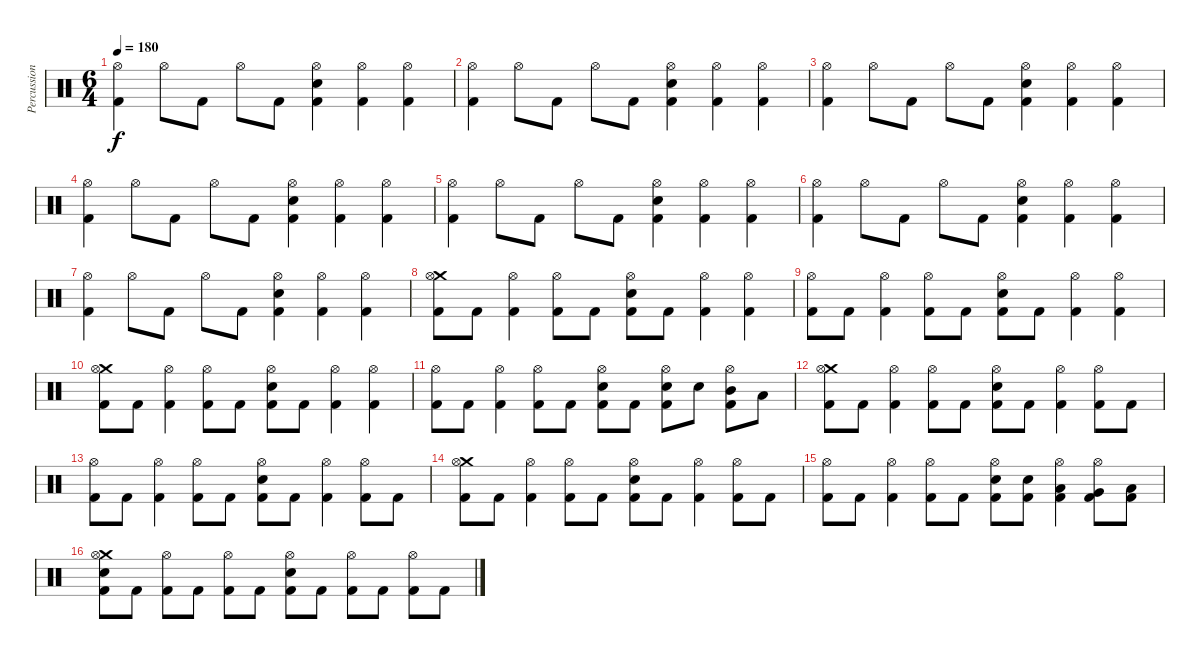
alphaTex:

\track ("Percussion" "Percussion") {instrument percussion}
\staff {score}
\articulation defaults
\ts (6 4)
\tempo 180
\clef neutral
\ks c
("Hi-Hat (open)" "Kick (hit) 2").4{dy f} "Hi-Hat (open)".8 "Kick (hit) 2".8 "Hi-Hat (open)".8 "Kick (hit) 2".8 ("Hi-Hat (open)" "Electric Snare (hit)" "Kick (hit) 2").4 ("Hi-Hat (open)" "Kick (hit) 2").4 ("Hi-Hat (open)" "Kick (hit) 2").4 |
("Hi-Hat (open)" "Kick (hit) 2").4 "Hi-Hat (open)".8 "Kick (hit) 2".8 "Hi-Hat (open)".8 "Kick (hit) 2".8 ("Hi-Hat (open)" "Electric Snare (hit)" "Kick (hit) 2").4 ("Hi-Hat (open)" "Kick (hit) 2").4 ("Hi-Hat (open)" "Kick (hit) 2").4 |
("Hi-Hat (open)" "Kick (hit) 2").4 "Hi-Hat (open)".8 "Kick (hit) 2".8 "Hi-Hat (open)".8 "Kick (hit) 2".8 ("Hi-Hat (open)" "Electric Snare (hit)" "Kick (hit) 2").4 ("Hi-Hat (open)" "Kick (hit) 2").4 ("Hi-Hat (open)" "Kick (hit) 2").4 |
("Hi-Hat (open)" "Kick (hit) 2").4 "Hi-Hat (open)".8 "Kick (hit) 2".8 "Hi-Hat (open)".8 "Kick (hit) 2".8 ("Hi-Hat (open)" "Electric Snare (hit)" "Kick (hit) 2").4 ("Hi-Hat (open)" "Kick (hit) 2").4 ("Hi-Hat (open)" "Kick (hit) 2").4 |
("Hi-Hat (open)" "Kick (hit) 2").4 "Hi-Hat (open)".8 "Kick (hit) 2".8 "Hi-Hat (open)".8 "Kick (hit) 2".8 ("Hi-Hat (open)" "Electric Snare (hit)" "Kick (hit) 2").4 ("Hi-Hat (open)" "Kick (hit) 2").4 ("Hi-Hat (open)" "Kick (hit) 2").4 |
("Hi-Hat (open)" "Kick (hit) 2").4 "Hi-Hat (open)".8 "Kick (hit) 2".8 "Hi-Hat (open)".8 "Kick (hit) 2".8 ("Hi-Hat (open)" "Electric Snare (hit)" "Kick (hit) 2").4 ("Hi-Hat (open)" "Kick (hit) 2").4 ("Hi-Hat (open)" "Kick (hit) 2").4 |
("Hi-Hat (open)" "Kick (hit) 2").4 "Hi-Hat (open)".8 "Kick (hit) 2".8 "Hi-Hat (open)".8 "Kick (hit) 2".8 ("Hi-Hat (open)" "Electric Snare (hit)" "Kick (hit) 2").4 ("Hi-Hat (open)" "Kick (hit) 2").4 ("Hi-Hat (open)" "Kick (hit) 2").4 |
("Crash medium (hit)" "Hi-Hat (open)" "Kick (hit) 2").8 "Kick (hit) 2".8 ("Hi-Hat (open)" "Kick (hit) 2").4 ("Hi-Hat (open)" "Kick (hit) 2").8 "Kick (hit) 2".8 ("Hi-Hat (open)" "Electric Snare (hit)" "Kick (hit) 2").8 "Kick (hit) 2".8 ("Hi-Hat (open)" "Kick (hit) 2").4 ("Hi-Hat (open)" "Kick (hit) 2").4 |
("Hi-Hat (open)" "Kick (hit) 2").8 "Kick (hit) 2".8 ("Hi-Hat (open)" "Kick (hit) 2").4 ("Hi-Hat (open)" "Kick (hit) 2").8 "Kick (hit) 2".8 ("Hi-Hat (open)" "Electric Snare (hit)" "Kick (hit) 2").8 "Kick (hit) 2".8 ("Hi-Hat (open)" "Kick (hit) 2").4 ("Hi-Hat (open)" "Kick (hit) 2").4 |
("Crash medium (hit)" "Hi-Hat (open)" "Kick (hit) 2").8 "Kick (hit) 2".8 ("Hi-Hat (open)" "Kick (hit) 2").4 ("Hi-Hat (open)" "Kick (hit) 2").8 "Kick (hit) 2".8 ("Hi-Hat (open)" "Electric Snare (hit)" "Kick (hit) 2").8 "Kick (hit) 2".8 ("Hi-Hat (open)" "Kick (hit) 2").4 ("Hi-Hat (open)" "Kick (hit) 2").4 |
("Hi-Hat (open)" "Kick (hit) 2").8 "Kick (hit) 2".8 ("Hi-Hat (open)" "Kick (hit) 2").4 ("Hi-Hat (open)" "Kick (hit) 2").8 "Kick (hit) 2".8 ("Hi-Hat (open)" "Electric Snare (hit)" "Kick (hit) 2").8 "Kick (hit) 2".8 ("Hi-Hat (open)" "Electric Snare (hit)" "Kick (hit) 2").8 "Electric Snare (hit)".8 ("Hi-Hat (open)" "Mid Tom (hit)" "Kick (hit) 2").8 "Low Tom (hit)".8 |
("Crash medium (hit)" "Hi-Hat (open)" "Kick (hit) 2").8 "Kick (hit) 2".8 ("Hi-Hat (open)" "Kick (hit) 2").4 ("Hi-Hat (open)" "Kick (hit) 2").8 "Kick (hit) 2".8 ("Hi-Hat (open)" "Electric Snare (hit)" "Kick (hit) 2").8 "Kick (hit) 2".8 ("Hi-Hat (open)" "Kick (hit) 2").4 ("Hi-Hat (open)" "Kick (hit) 2").8 "Kick (hit) 2".8 |
("Hi-Hat (open)" "Kick (hit) 2").8 "Kick (hit) 2".8 ("Hi-Hat (open)" "Kick (hit) 2").4 ("Hi-Hat (open)" "Kick (hit) 2").8 "Kick (hit) 2".8 ("Hi-Hat (open)" "Electric Snare (hit)" "Kick (hit) 2").8 "Kick (hit) 2".8 ("Hi-Hat (open)" "Kick (hit) 2").4 ("Hi-Hat (open)" "Kick (hit) 2").8 "Kick (hit) 2".8 |
("Crash medium (hit)" "Hi-Hat (open)" "Kick (hit) 2").8 "Kick (hit) 2".8 ("Hi-Hat (open)" "Kick (hit) 2").4 ("Hi-Hat (open)" "Kick (hit) 2").8 "Kick (hit) 2".8 ("Hi-Hat (open)" "Electric Snare (hit)" "Kick (hit) 2").8 "Kick (hit) 2".8 ("Hi-Hat (open)" "Kick (hit) 2").4 ("Hi-Hat (open)" "Kick (hit) 2").8 "Kick (hit) 2".8 |
("Hi-Hat (open)" "Kick (hit) 2").8 "Kick (hit) 2".8 ("Hi-Hat (open)" "Kick (hit) 2").4 ("Hi-Hat (open)" "Kick (hit) 2").8 "Kick (hit) 2".8 ("Hi-Hat (open)" "Electric Snare (hit)" "Kick (hit) 2").8 ("Electric Snare (hit)" "Kick (hit) 2").8 ("Hi-Hat (open)" "Low Tom (hit)" "Kick (hit) 2").4 ("Hi-Hat (open)" "Very Low Tom (hit)" "Kick (hit) 2").8 ("Low Floor Tom (hit)" "Kick (hit) 2").8 |
("Crash medium (hit)" "Hi-Hat (open)" "Electric Snare (hit)" "Kick (hit) 2").8 "Kick (hit) 2".8 ("Hi-Hat (open)" "Kick (hit) 2").8 "Kick (hit) 2".8 ("Hi-Hat (open)" "Kick (hit) 2").8 "Kick (hit) 2".8 ("Hi-Hat (open)" "Electric Snare (hit)" "Kick (hit) 2").8 "Kick (hit) 2".8 ("Hi-Hat (open)" "Kick (hit) 2").8 "Kick (hit) 2".8 ("Hi-Hat (open)" "Kick (hit) 2").8 "Kick (hit) 2".8
